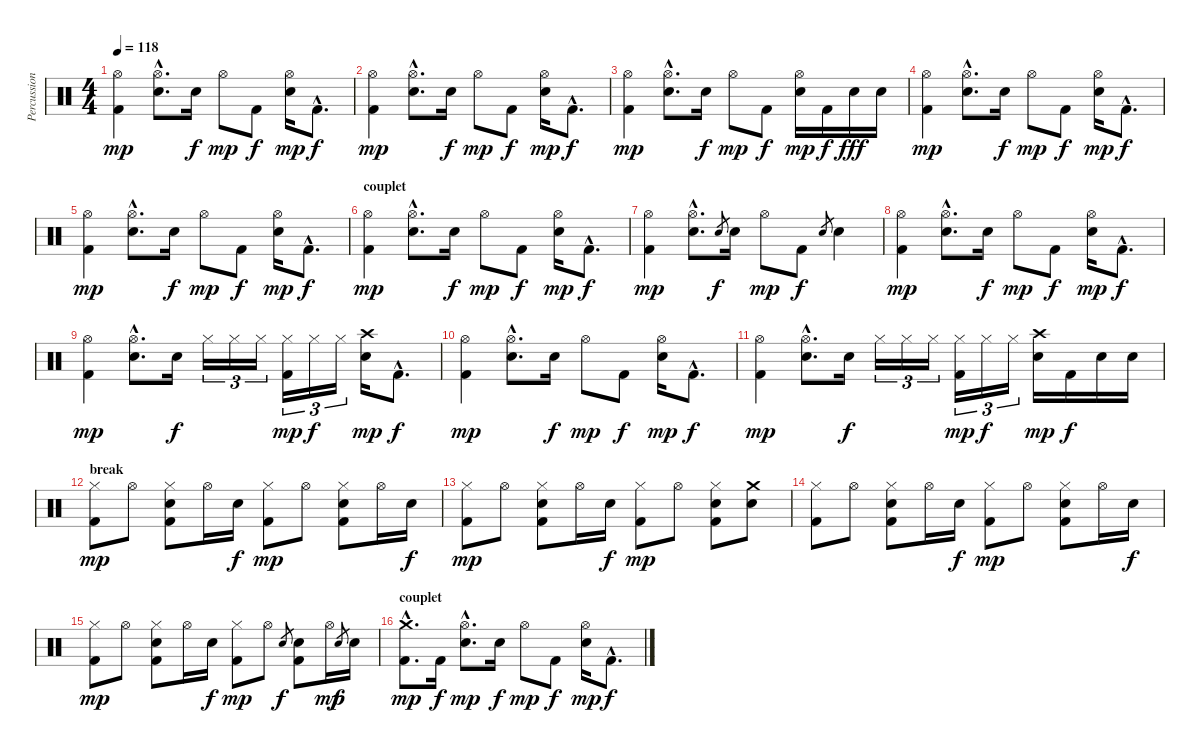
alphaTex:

\track ("Percussions" "Percussion") {instrument percussion}
\staff {score}
\articulation defaults
\ts (4 4)
\tempo 118
\clef neutral
\ks c
("Hi-Hat (open)" "Kick (hit) 2").4{dy mp} ("Hi-Hat (open)"{hac} "Snare (hit) 2"{hac}).8{d} "Snare (hit) 2".16{dy f} "Hi-Hat (open)".8{dy mp} "Kick (hit) 2".8{dy f} ("Hi-Hat (open)" "Snare (hit) 2").16{dy mp} "Kick (hit) 2"{hac}.8{d dy f} |
("Hi-Hat (open)" "Kick (hit) 2").4{dy mp} ("Hi-Hat (open)"{hac} "Snare (hit) 2"{hac}).8{d} "Snare (hit) 2".16{dy f} "Hi-Hat (open)".8{dy mp} "Kick (hit) 2".8{dy f} ("Hi-Hat (open)" "Snare (hit) 2").16{dy mp} "Kick (hit) 2"{hac}.8{d dy f} |
("Hi-Hat (open)" "Kick (hit) 2").4{dy mp} ("Hi-Hat (open)"{hac} "Snare (hit) 2"{hac}).8{d} "Snare (hit) 2".16{dy f} "Hi-Hat (open)".8{dy mp} "Kick (hit) 2".8{dy f} ("Hi-Hat (open)" "Snare (hit) 2").16{dy mp} "Kick (hit) 2".16{dy f} "Snare (hit) 2".16{dy fff} "Snare (hit) 2".16 |
("Hi-Hat (open)" "Kick (hit) 2").4{dy mp} ("Hi-Hat (open)"{hac} "Snare (hit) 2"{hac}).8{d} "Snare (hit) 2".16{dy f} "Hi-Hat (open)".8{dy mp} "Kick (hit) 2".8{dy f} ("Hi-Hat (open)" "Snare (hit) 2").16{dy mp} "Kick (hit) 2"{hac}.8{d dy f} |
("Hi-Hat (open)" "Kick (hit) 2").4{dy mp} ("Hi-Hat (open)"{hac} "Snare (hit) 2"{hac}).8{d} "Snare (hit) 2".16{dy f} "Hi-Hat (open)".8{dy mp} "Kick (hit) 2".8{dy f} ("Hi-Hat (open)" "Snare (hit) 2").16{dy mp} "Kick (hit) 2"{hac}.8{d dy f} |
\section ("" "couplet")
("Hi-Hat (open)" "Kick (hit) 2").4{dy mp} ("Hi-Hat (open)"{hac} "Snare (hit) 2"{hac}).8{d} "Snare (hit) 2".16{dy f} "Hi-Hat (open)".8{dy mp} "Kick (hit) 2".8{dy f} ("Hi-Hat (open)" "Snare (hit) 2").16{dy mp} "Kick (hit) 2"{hac}.8{d dy f} |
("Hi-Hat (open)" "Kick (hit) 2").4{dy mp} ("Hi-Hat (open)"{hac} "Snare (hit) 2"{hac}).8{d} "Snare (hit) 2".8{gr dy f} "Snare (hit) 2".16 "Hi-Hat (open)".8{dy mp} "Kick (hit) 2".8{dy f} "Snare (hit) 2".8{gr} "Snare (hit) 2".4 |
("Hi-Hat (open)" "Kick (hit) 2").4{dy mp} ("Hi-Hat (open)"{hac} "Snare (hit) 2"{hac}).8{d} "Snare (hit) 2".16{dy f} "Hi-Hat (open)".8{dy mp} "Kick (hit) 2".8{dy f} ("Hi-Hat (open)" "Snare (hit) 2").16{dy mp} "Kick (hit) 2"{hac}.8{d dy f} |
("Hi-Hat (open)" "Kick (hit) 2").4{dy mp} ("Hi-Hat (open)"{hac} "Snare (hit) 2"{hac}).8{d} "Snare (hit) 2".16{dy f} "Hi-Hat (closed)".16{tu (3 2)} "Hi-Hat (closed)".16{tu (3 2)} "Hi-Hat (closed)".16{tu (3 2)} ("Hi-Hat (closed)" "Kick (hit) 2").16{tu (3 2) dy mp} "Hi-Hat (closed)".16{tu (3 2) dy f} "Hi-Hat (closed)".16{tu (3 2)} ("Crash high (hit)" "Snare (hit) 2").16{dy mp} "Kick (hit) 2"{hac}.8{d dy f} |
("Hi-Hat (open)" "Kick (hit) 2").4{dy mp} ("Hi-Hat (open)"{hac} "Snare (hit) 2"{hac}).8{d} "Snare (hit) 2".16{dy f} "Hi-Hat (open)".8{dy mp} "Kick (hit) 2".8{dy f} ("Hi-Hat (open)" "Snare (hit) 2").16{dy mp} "Kick (hit) 2"{hac}.8{d dy f} |
("Hi-Hat (open)" "Kick (hit) 2").4{dy mp} ("Hi-Hat (open)"{hac} "Snare (hit) 2"{hac}).8{d} "Snare (hit) 2".16{dy f} "Hi-Hat (closed)".16{tu (3 2)} "Hi-Hat (closed)".16{tu (3 2)} "Hi-Hat (closed)".16{tu (3 2)} ("Hi-Hat (closed)" "Kick (hit) 2").16{tu (3 2) dy mp} "Hi-Hat (closed)".16{tu (3 2) dy f} "Hi-Hat (closed)".16{tu (3 2)} ("Crash high (hit)" "Snare (hit) 2").16{dy mp} "Kick (hit) 2".16{dy f} "Snare (hit) 2".16 "Snare (hit) 2".16 |
\section ("" "break")
("Hi-Hat (closed)" "Kick (hit) 2").8{dy mp} "Hi-Hat (open)".8 ("Hi-Hat (closed)" "Snare (hit) 2" "Kick (hit) 2").8 "Hi-Hat (open)".16 "Snare (hit) 2".16{dy f} ("Hi-Hat (closed)" "Kick (hit) 2").8{dy mp} "Hi-Hat (open)".8 ("Hi-Hat (closed)" "Snare (hit) 2" "Kick (hit) 2").8 "Hi-Hat (open)".16 "Snare (hit) 2".16{dy f} |
("Hi-Hat (closed)" "Kick (hit) 2").8{dy mp} "Hi-Hat (open)".8 ("Hi-Hat (closed)" "Snare (hit) 2" "Kick (hit) 2").8 "Hi-Hat (open)".16 "Snare (hit) 2".16{dy f} ("Hi-Hat (closed)" "Kick (hit) 2").8{dy mp} "Hi-Hat (open)".8 ("Hi-Hat (closed)" "Snare (hit) 2" "Kick (hit) 2").8 ("Crash medium (hit)" "Snare (hit) 2").8 |
("Hi-Hat (closed)" "Kick (hit) 2").8 "Hi-Hat (open)".8 ("Hi-Hat (closed)" "Snare (hit) 2" "Kick (hit) 2").8 "Hi-Hat (open)".16 "Snare (hit) 2".16{dy f} ("Hi-Hat (closed)" "Kick (hit) 2").8{dy mp} "Hi-Hat (open)".8 ("Hi-Hat (closed)" "Snare (hit) 2" "Kick (hit) 2").8 "Hi-Hat (open)".16 "Snare (hit) 2".16{dy f} |
("Hi-Hat (closed)" "Kick (hit) 2").8{dy mp} "Hi-Hat (open)".8 ("Hi-Hat (closed)" "Snare (hit) 2" "Kick (hit) 2").8 "Hi-Hat (open)".16 "Snare (hit) 2".16{dy f} ("Hi-Hat (closed)" "Kick (hit) 2").8{dy mp} "Hi-Hat (open)".8 "Snare (hit) 2".8{gr dy f} ("Snare (hit) 2" "Kick (hit) 2").8 "Hi-Hat (open)".16{dy mp} "Snare (hit) 2".8{gr dy f} "Snare (hit) 2".16 |
\section ("" "couplet")
("Crash medium (hit)"{hac} "Kick (hit) 2"{hac}).8{d dy mp} "Kick (hit) 2".16{dy f} ("Hi-Hat (open)"{hac} "Snare (hit) 2"{hac}).8{d dy mp} "Electric Snare (hit)".16{dy f} "Hi-Hat (open)".8{dy mp} "Kick (hit) 2".8{dy f} ("Hi-Hat (open)" "Snare (hit) 2").16{dy mp} "Kick (hit) 2"{hac}.8{d dy f}
